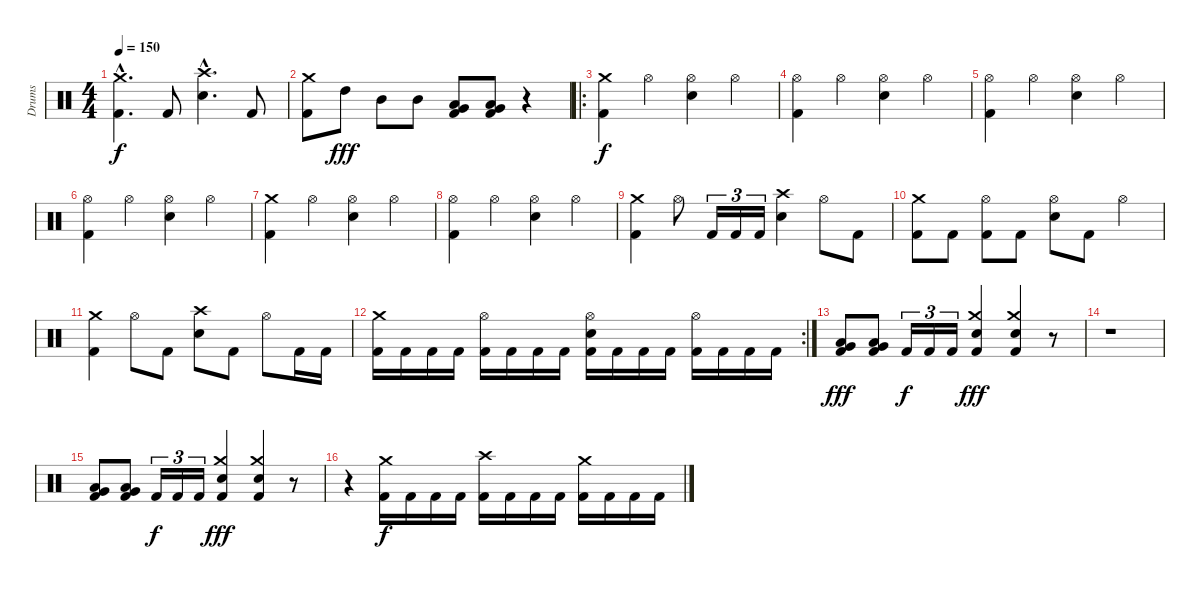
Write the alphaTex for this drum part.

\track ("Drums" "Drums") {instrument percussion}
\staff {score}
\articulation defaults
\ts (4 4)
\tempo 150
\clef neutral
\ks c
("Kick (hit) 2"{hac} "Crash medium (hit)"{hac}).4{d dy f} "Kick (hit) 2".8 ("Electric Snare (hit)"{hac} "Crash high (hit)"{hac}).4{d} "Kick (hit) 2".8 |
("Kick (hit) 2" "Crash medium (hit)").8 "High Tom (hit)".8{dy fff} "Mid Tom (hit)".8 "Mid Tom (hit)".8 ("Kick (hit) 2" "Low Tom (hit)" "Very Low Tom (hit)").8 ("Kick (hit) 2" "Low Tom (hit)" "Very Low Tom (hit)").8 r.4 |
\ro
("Kick (hit) 2" "Crash medium (hit)").4{dy f} "Hi-Hat (open)".4 ("Electric Snare (hit)" "Hi-Hat (open)").4 "Hi-Hat (open)".4 |
("Kick (hit) 2" "Hi-Hat (open)").4 "Hi-Hat (open)".4 ("Electric Snare (hit)" "Hi-Hat (open)").4 "Hi-Hat (open)".4 |
("Kick (hit) 2" "Hi-Hat (open)").4 "Hi-Hat (open)".4 ("Electric Snare (hit)" "Hi-Hat (open)").4 "Hi-Hat (open)".4 |
("Kick (hit) 2" "Hi-Hat (open)").4 "Hi-Hat (open)".4 ("Electric Snare (hit)" "Hi-Hat (open)").4 "Hi-Hat (open)".4 |
("Kick (hit) 2" "Crash medium (hit)").4 "Hi-Hat (open)".4 ("Electric Snare (hit)" "Hi-Hat (open)").4 "Hi-Hat (open)".4 |
("Kick (hit) 2" "Hi-Hat (open)").4 "Hi-Hat (open)".4 ("Electric Snare (hit)" "Hi-Hat (open)").4 "Hi-Hat (open)".4 |
("Kick (hit) 2" "Crash medium (hit)").4 "Hi-Hat (open)".8 "Kick (hit) 2".16{tu (3 2)} "Kick (hit) 2".16{tu (3 2)} "Kick (hit) 2".16{tu (3 2)} ("Electric Snare (hit)" "Crash high (hit)").4 "Hi-Hat (open)".8 "Kick (hit) 2".8 |
("Kick (hit) 2" "Crash medium (hit)").8 "Kick (hit) 2".8 ("Kick (hit) 2" "Hi-Hat (open)").8 "Kick (hit) 2".8 ("Electric Snare (hit)" "Hi-Hat (open)").8 "Kick (hit) 2".8 "Hi-Hat (open)".4 |
("Kick (hit) 2" "Crash medium (hit)").4 "Hi-Hat (open)".8 "Kick (hit) 2".8 ("Electric Snare (hit)" "Crash high (hit)").8 "Kick (hit) 2".8 "Hi-Hat (open)".8 "Kick (hit) 2".16 "Kick (hit) 2".16 |
\rc 2
("Kick (hit) 2" "Crash medium (hit)").16 "Kick (hit) 2".16 "Kick (hit) 2".16 "Kick (hit) 2".16 ("Kick (hit) 2" "Hi-Hat (open)").16 "Kick (hit) 2".16 "Kick (hit) 2".16 "Kick (hit) 2".16 ("Kick (hit) 2" "Electric Snare (hit)" "Hi-Hat (open)").16 "Kick (hit) 2".16 "Kick (hit) 2".16 "Kick (hit) 2".16 ("Kick (hit) 2" "Hi-Hat (open)").16 "Kick (hit) 2".16 "Kick (hit) 2".16 "Kick (hit) 2".16 |
("Kick (hit) 2" "Low Tom (hit)" "Very Low Tom (hit)").8{dy fff} ("Kick (hit) 2" "Low Tom (hit)" "Very Low Tom (hit)").8 "Kick (hit) 2".16{tu (3 2) dy f} "Kick (hit) 2".16{tu (3 2)} "Kick (hit) 2".16{tu (3 2)} ("Kick (hit) 2" "Electric Snare (hit)" "Crash medium (hit)").4{dy fff} ("Kick (hit) 2" "Electric Snare (hit)" "Crash medium (hit)").4 r.8 |
r.1 |
("Kick (hit) 2" "Low Tom (hit)" "Very Low Tom (hit)").8 ("Kick (hit) 2" "Low Tom (hit)" "Very Low Tom (hit)").8 "Kick (hit) 2".16{tu (3 2) dy f} "Kick (hit) 2".16{tu (3 2)} "Kick (hit) 2".16{tu (3 2)} ("Kick (hit) 2" "Electric Snare (hit)" "Crash medium (hit)").4{dy fff} ("Kick (hit) 2" "Electric Snare (hit)" "Crash medium (hit)").4 r.8 |
r.4 ("Kick (hit) 2" "Crash medium (hit)").16{dy f} "Kick (hit) 2".16 "Kick (hit) 2".16 "Kick (hit) 2".16 ("Kick (hit) 2" "Crash high (hit)").16 "Kick (hit) 2".16 "Kick (hit) 2".16 "Kick (hit) 2".16 ("Kick (hit) 2" "Crash medium (hit)").16 "Kick (hit) 2".16 "Kick (hit) 2".16 "Kick (hit) 2".16
